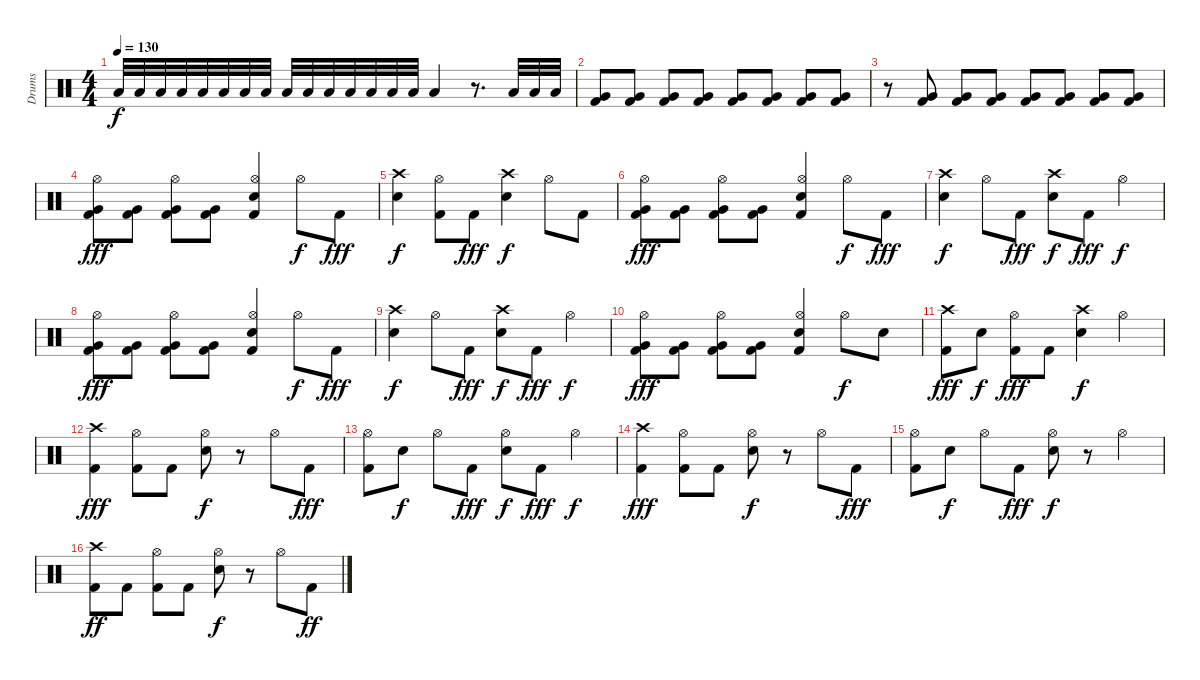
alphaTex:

\track ("Drums" "Drums") {instrument percussion}
\staff {score}
\articulation defaults
\ts (4 4)
\tempo 130
\clef neutral
\ks c "Low Tom (hit)".32{dy f volume 1} "Low Tom (hit)".32{volume 14} "Low Tom (hit)".32 "Low Tom (hit)".32 "Low Tom (hit)".32 "Low Tom (hit)".32 "Low Tom (hit)".32 "Low Tom (hit)".32 "Low Tom (hit)".32 "Low Tom (hit)".32 "Low Tom (hit)".32 "Low Tom (hit)".32 "Low Tom (hit)".32 "Low Tom (hit)".32 "Low Tom (hit)".32 "Low Tom (hit)".4
r.8{d} "Low Tom (hit)".32 "Low Tom (hit)".32 "Low Tom (hit)".32 |
("Very Low Tom (hit)" "Kick (hit) 2").8{volume 9} ("Very Low Tom (hit)" "Kick (hit) 2").8{volume 14} ("Very Low Tom (hit)" "Kick (hit) 2").8 ("Very Low Tom (hit)" "Kick (hit) 2").8 ("Very Low Tom (hit)" "Kick (hit) 2").8 ("Very Low Tom (hit)" "Kick (hit) 2").8 ("Very Low Tom (hit)" "Kick (hit) 2").8 ("Very Low Tom (hit)" "Kick (hit) 2").8 |
r.8 ("Very Low Tom (hit)" "Kick (hit) 2").8 ("Very Low Tom (hit)" "Kick (hit) 2").8 ("Very Low Tom (hit)" "Kick (hit) 2").8 ("Very Low Tom (hit)" "Kick (hit) 2").8 ("Very Low Tom (hit)" "Kick (hit) 2").8 ("Very Low Tom (hit)" "Kick (hit) 2").8 ("Very Low Tom (hit)" "Kick (hit) 2").8 |
("Hi-Hat (open)" "Very Low Tom (hit)" "Kick (hit) 2").8{dy fff} ("Very Low Tom (hit)" "Kick (hit) 2").8 ("Hi-Hat (open)" "Very Low Tom (hit)" "Kick (hit) 2").8 ("Very Low Tom (hit)" "Kick (hit) 2").8 ("Hi-Hat (open)" "Snare (hit) 2" "Kick (hit) 2").4 "Hi-Hat (open)".8{dy f} "Kick (hit) 2".8{dy fff} |
("Crash high (hit)" "Snare (hit) 2").4{dy f} ("Hi-Hat (open)" "Kick (hit) 2").8 "Kick (hit) 2".8{dy fff} ("Crash high (hit)" "Snare (hit) 2").4{dy f} "Hi-Hat (open)".8 "Kick (hit) 2".8 |
("Hi-Hat (open)" "Very Low Tom (hit)" "Kick (hit) 2").8{dy fff} ("Very Low Tom (hit)" "Kick (hit) 2").8 ("Hi-Hat (open)" "Very Low Tom (hit)" "Kick (hit) 2").8 ("Very Low Tom (hit)" "Kick (hit) 2").8 ("Hi-Hat (open)" "Snare (hit) 2" "Kick (hit) 2").4 "Hi-Hat (open)".8{dy f} "Kick (hit) 2".8{dy fff} |
("Crash high (hit)" "Snare (hit) 2").4{dy f} "Hi-Hat (open)".8 "Kick (hit) 2".8{dy fff} ("Crash high (hit)" "Snare (hit) 2").8{dy f} "Kick (hit) 2".8{dy fff} "Hi-Hat (open)".4{dy f} |
("Hi-Hat (open)" "Very Low Tom (hit)" "Kick (hit) 2").8{dy fff} ("Very Low Tom (hit)" "Kick (hit) 2").8 ("Hi-Hat (open)" "Very Low Tom (hit)" "Kick (hit) 2").8 ("Very Low Tom (hit)" "Kick (hit) 2").8 ("Hi-Hat (open)" "Snare (hit) 2" "Kick (hit) 2").4 "Hi-Hat (open)".8{dy f} "Kick (hit) 2".8{dy fff} |
("Crash high (hit)" "Snare (hit) 2").4{dy f} "Hi-Hat (open)".8 "Kick (hit) 2".8{dy fff} ("Crash high (hit)" "Snare (hit) 2").8{dy f} "Kick (hit) 2".8{dy fff} "Hi-Hat (open)".4{dy f} |
("Hi-Hat (open)" "Very Low Tom (hit)" "Kick (hit) 2").8{dy fff} ("Very Low Tom (hit)" "Kick (hit) 2").8 ("Hi-Hat (open)" "Very Low Tom (hit)" "Kick (hit) 2").8 ("Very Low Tom (hit)" "Kick (hit) 2").8 ("Hi-Hat (open)" "Snare (hit) 2" "Kick (hit) 2").4 "Hi-Hat (open)".8{dy f} "Snare (hit) 2".8 |
("Crash high (hit)" "Kick (hit) 2").8{dy fff} "Snare (hit) 2".8{dy f} ("Hi-Hat (open)" "Kick (hit) 2").8{dy fff} "Kick (hit) 2".8 ("Crash high (hit)" "Snare (hit) 2").4{dy f} "Hi-Hat (open)".4 |
("Crash high (hit)" "Kick (hit) 2").4{dy fff} ("Hi-Hat (open)" "Kick (hit) 2").8 "Kick (hit) 2".8 ("Hi-Hat (open)" "Snare (hit) 2").8{dy f} r.8 "Hi-Hat (open)".8 "Kick (hit) 2".8{dy fff} |
("Hi-Hat (open)" "Kick (hit) 2").8 "Snare (hit) 2".8{dy f} "Hi-Hat (open)".8 "Kick (hit) 2".8{dy fff} ("Hi-Hat (open)" "Snare (hit) 2").8{dy f} "Kick (hit) 2".8{dy fff} "Hi-Hat (open)".4{dy f} |
("Crash high (hit)" "Kick (hit) 2").4{dy fff} ("Hi-Hat (open)" "Kick (hit) 2").8 "Kick (hit) 2".8 ("Hi-Hat (open)" "Snare (hit) 2").8{dy f} r.8 "Hi-Hat (open)".8 "Kick (hit) 2".8{dy fff} |
("Hi-Hat (open)" "Kick (hit) 2").8 "Snare (hit) 2".8{dy f} "Hi-Hat (open)".8 "Kick (hit) 2".8{dy fff} ("Hi-Hat (open)" "Snare (hit) 2").8{dy f} r.8 "Hi-Hat (open)".4 |
("Crash high (hit)" "Kick (hit) 2").8{dy ff} "Kick (hit) 2".8 ("Hi-Hat (open)" "Kick (hit) 2").8 "Kick (hit) 2".8 ("Hi-Hat (open)" "Snare (hit) 2").8{dy f} r.8 "Hi-Hat (open)".8 "Kick (hit) 2".8{dy ff}
